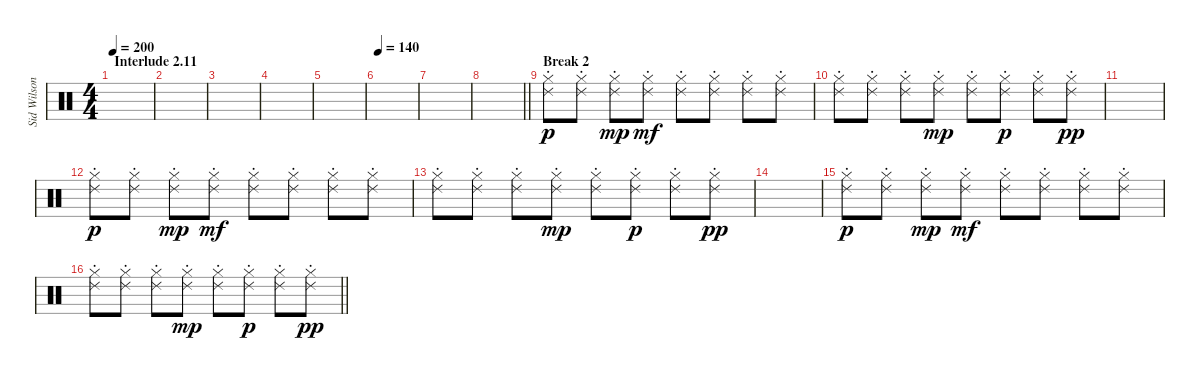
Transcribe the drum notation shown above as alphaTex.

\track ("Sid Wilson" "Sid Wilson") {instrument percussion}
\staff {score}
\articulation defaults
\ts (4 4)
\section ("" "Interlude 2.11")
\tempo 200
\clef neutral
\ks c
|
|
|
|
|
\tempo 140
|
|
\barLineRight lightlight
|
\section ("" "Break 2")
("Ride (choke) 2" "Hi-Hat (closed)").8{dy p} ("Ride (choke) 2" "Hi-Hat (closed)").8 ("Ride (choke) 2" "Hi-Hat (closed)").8{dy mp} ("Ride (choke) 2" "Hi-Hat (closed)").8{dy mf} ("Ride (choke) 2" "Hi-Hat (closed)").8 ("Ride (choke) 2" "Hi-Hat (closed)").8 ("Ride (choke) 2" "Hi-Hat (closed)").8 ("Ride (choke) 2" "Hi-Hat (closed)").8 |
("Ride (choke) 2" "Hi-Hat (closed)").8 ("Ride (choke) 2" "Hi-Hat (closed)").8 ("Ride (choke) 2" "Hi-Hat (closed)").8 ("Ride (choke) 2" "Hi-Hat (closed)").8{dy mp} ("Ride (choke) 2" "Hi-Hat (closed)").8 ("Ride (choke) 2" "Hi-Hat (closed)").8{dy p} ("Ride (choke) 2" "Hi-Hat (closed)").8 ("Ride (choke) 2" "Hi-Hat (closed)").8{dy pp} |
|
("Ride (choke) 2" "Hi-Hat (closed)").8{dy p} ("Ride (choke) 2" "Hi-Hat (closed)").8 ("Ride (choke) 2" "Hi-Hat (closed)").8{dy mp} ("Ride (choke) 2" "Hi-Hat (closed)").8{dy mf} ("Ride (choke) 2" "Hi-Hat (closed)").8 ("Ride (choke) 2" "Hi-Hat (closed)").8 ("Ride (choke) 2" "Hi-Hat (closed)").8 ("Ride (choke) 2" "Hi-Hat (closed)").8 |
("Ride (choke) 2" "Hi-Hat (closed)").8 ("Ride (choke) 2" "Hi-Hat (closed)").8 ("Ride (choke) 2" "Hi-Hat (closed)").8 ("Ride (choke) 2" "Hi-Hat (closed)").8{dy mp} ("Ride (choke) 2" "Hi-Hat (closed)").8 ("Ride (choke) 2" "Hi-Hat (closed)").8{dy p} ("Ride (choke) 2" "Hi-Hat (closed)").8 ("Ride (choke) 2" "Hi-Hat (closed)").8{dy pp} |
|
("Ride (choke) 2" "Hi-Hat (closed)").8{dy p} ("Ride (choke) 2" "Hi-Hat (closed)").8 ("Ride (choke) 2" "Hi-Hat (closed)").8{dy mp} ("Ride (choke) 2" "Hi-Hat (closed)").8{dy mf} ("Ride (choke) 2" "Hi-Hat (closed)").8 ("Ride (choke) 2" "Hi-Hat (closed)").8 ("Ride (choke) 2" "Hi-Hat (closed)").8 ("Ride (choke) 2" "Hi-Hat (closed)").8 |
\barLineRight lightlight
("Ride (choke) 2" "Hi-Hat (closed)").8 ("Ride (choke) 2" "Hi-Hat (closed)").8 ("Ride (choke) 2" "Hi-Hat (closed)").8 ("Ride (choke) 2" "Hi-Hat (closed)").8{dy mp} ("Ride (choke) 2" "Hi-Hat (closed)").8 ("Ride (choke) 2" "Hi-Hat (closed)").8{dy p} ("Ride (choke) 2" "Hi-Hat (closed)").8 ("Ride (choke) 2" "Hi-Hat (closed)").8{dy pp}
